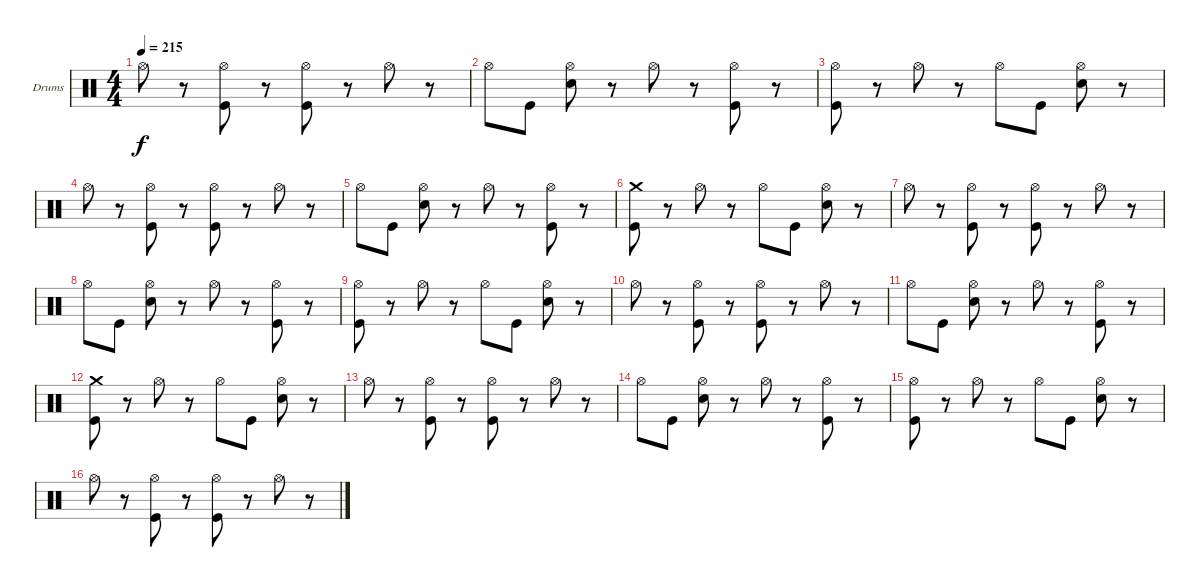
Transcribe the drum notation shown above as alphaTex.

\bracketExtendMode groupsimilarinstruments
\firstSystemTrackNameOrientation horizontal
\otherSystemsTrackNameOrientation horizontal
\track ("Drumkit (Christoph)" "Drums") {instrument percussion}
\staff {score}
\articulation defaults
\ts (4 4)
\tempo 215
\clef neutral
\ks c "Hi-Hat (open)".8{dy f}
r.8 ("Hi-Hat (open)" "Kick (hit)").8 r.8 ("Hi-Hat (open)" "Kick (hit)").8 r.8 "Hi-Hat (open)".8 r.8 |
"Hi-Hat (open)".8 "Kick (hit)".8 ("Hi-Hat (open)" "Snare (hit) 2").8 r.8 "Hi-Hat (open)".8 r.8 ("Hi-Hat (open)" "Kick (hit)").8 r.8 |
("Hi-Hat (open)" "Kick (hit)").8 r.8 "Hi-Hat (open)".8 r.8 "Hi-Hat (open)".8 "Kick (hit)".8 ("Hi-Hat (open)" "Snare (hit) 2").8 r.8 |
"Hi-Hat (open)".8 r.8 ("Hi-Hat (open)" "Kick (hit)").8 r.8 ("Hi-Hat (open)" "Kick (hit)").8 r.8 "Hi-Hat (open)".8 r.8 |
"Hi-Hat (open)".8 "Kick (hit)".8 ("Hi-Hat (open)" "Snare (hit) 2").8 r.8 "Hi-Hat (open)".8 r.8 ("Hi-Hat (open)" "Kick (hit)").8 r.8 |
("Crash medium (hit)" "Kick (hit)").8 r.8 "Hi-Hat (open)".8 r.8 "Hi-Hat (open)".8 "Kick (hit)".8 ("Hi-Hat (open)" "Snare (hit) 2").8 r.8 |
"Hi-Hat (open)".8 r.8 ("Hi-Hat (open)" "Kick (hit)").8 r.8 ("Hi-Hat (open)" "Kick (hit)").8 r.8 "Hi-Hat (open)".8 r.8 |
"Hi-Hat (open)".8 "Kick (hit)".8 ("Hi-Hat (open)" "Snare (hit) 2").8 r.8 "Hi-Hat (open)".8 r.8 ("Hi-Hat (open)" "Kick (hit)").8 r.8 |
("Hi-Hat (open)" "Kick (hit)").8 r.8 "Hi-Hat (open)".8 r.8 "Hi-Hat (open)".8 "Kick (hit)".8 ("Hi-Hat (open)" "Snare (hit) 2").8 r.8 |
"Hi-Hat (open)".8 r.8 ("Hi-Hat (open)" "Kick (hit)").8 r.8 ("Hi-Hat (open)" "Kick (hit)").8 r.8 "Hi-Hat (open)".8 r.8 |
"Hi-Hat (open)".8 "Kick (hit)".8 ("Hi-Hat (open)" "Snare (hit) 2").8 r.8 "Hi-Hat (open)".8 r.8 ("Hi-Hat (open)" "Kick (hit)").8 r.8 |
("Crash medium (hit)" "Kick (hit)").8 r.8 "Hi-Hat (open)".8 r.8 "Hi-Hat (open)".8 "Kick (hit)".8 ("Hi-Hat (open)" "Snare (hit) 2").8 r.8 |
"Hi-Hat (open)".8 r.8 ("Hi-Hat (open)" "Kick (hit)").8 r.8 ("Hi-Hat (open)" "Kick (hit)").8 r.8 "Hi-Hat (open)".8 r.8 |
"Hi-Hat (open)".8 "Kick (hit)".8 ("Hi-Hat (open)" "Snare (hit) 2").8 r.8 "Hi-Hat (open)".8 r.8 ("Hi-Hat (open)" "Kick (hit)").8 r.8 |
("Hi-Hat (open)" "Kick (hit)").8 r.8 "Hi-Hat (open)".8 r.8 "Hi-Hat (open)".8 "Kick (hit)".8 ("Hi-Hat (open)" "Snare (hit) 2").8 r.8 |
"Hi-Hat (open)".8 r.8 ("Hi-Hat (open)" "Kick (hit)").8 r.8 ("Hi-Hat (open)" "Kick (hit)").8 r.8 "Hi-Hat (open)".8 r.8
